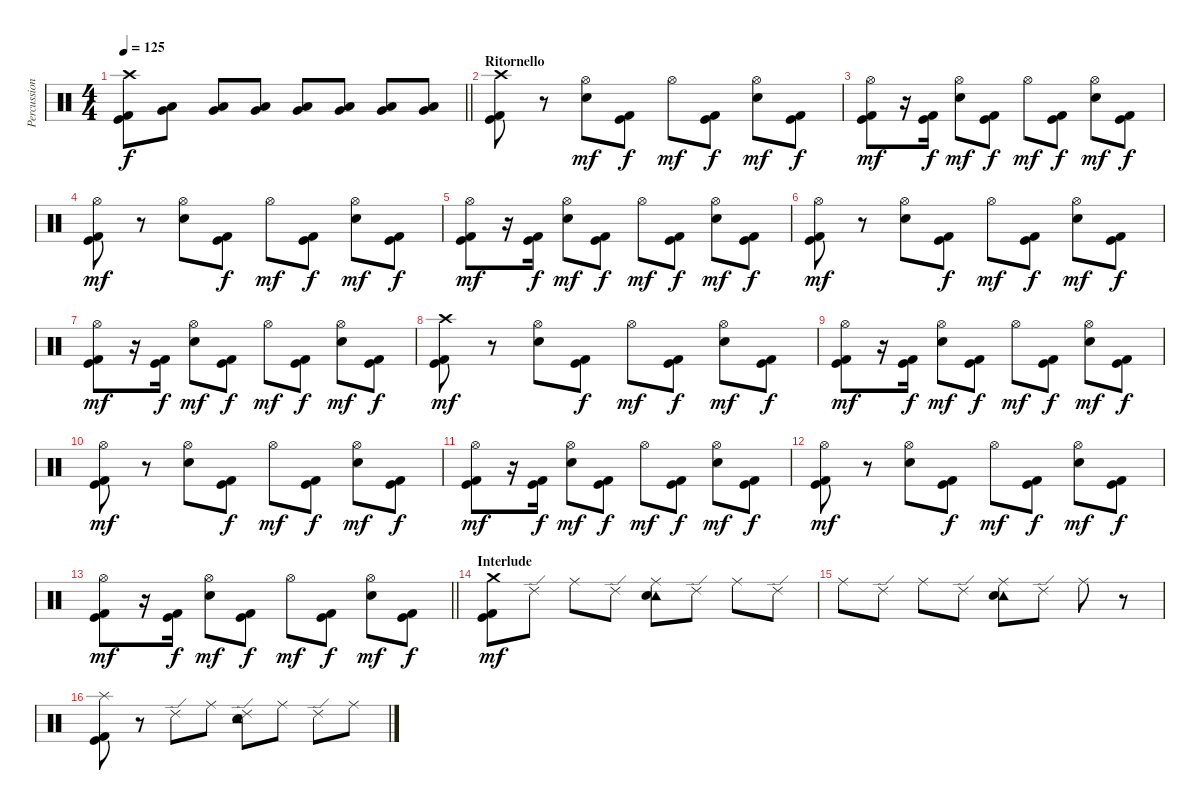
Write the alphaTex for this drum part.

\track ("Percussioni" "Percussion") {instrument percussion}
\staff {score}
\articulation defaults
\ts (4 4)
\tempo 125
\clef neutral
\barLineRight lightlight
\ks c
("Crash high (hit)" "Kick (hit)" "Kick (hit) 2").8{dy f} ("Low Tom (hit)" "Very Low Tom (hit)").8 ("Low Tom (hit)" "Very Low Tom (hit)").8 ("Low Tom (hit)" "Very Low Tom (hit)").8 ("Low Tom (hit)" "Very Low Tom (hit)").8 ("Low Tom (hit)" "Very Low Tom (hit)").8 ("Low Tom (hit)" "Very Low Tom (hit)").8 ("Very Low Tom (hit)" "Low Floor Tom (hit)").8 |
\section ("" "Ritornello")
("Crash high (hit)" "Kick (hit)" "Kick (hit) 2").8 r.8 ("Hi-Hat (open)" "Electric Snare (hit)").8{dy mf} ("Kick (hit)" "Kick (hit) 2").8{dy f} "Hi-Hat (open)".8{dy mf} ("Kick (hit)" "Kick (hit) 2").8{dy f} ("Hi-Hat (open)" "Electric Snare (hit)").8{dy mf} ("Kick (hit)" "Kick (hit) 2").8{dy f} |
("Hi-Hat (open)" "Kick (hit)" "Kick (hit) 2").8{dy mf} r.16 ("Kick (hit)" "Kick (hit) 2").16{dy f} ("Hi-Hat (open)" "Electric Snare (hit)").8{dy mf} ("Kick (hit)" "Kick (hit) 2").8{dy f} "Hi-Hat (open)".8{dy mf} ("Kick (hit)" "Kick (hit) 2").8{dy f} ("Hi-Hat (open)" "Electric Snare (hit)").8{dy mf} ("Kick (hit)" "Kick (hit) 2").8{dy f} |
("Hi-Hat (open)" "Kick (hit)" "Kick (hit) 2").8{dy mf} r.8 ("Hi-Hat (open)" "Electric Snare (hit)").8 ("Kick (hit)" "Kick (hit) 2").8{dy f} "Hi-Hat (open)".8{dy mf} ("Kick (hit)" "Kick (hit) 2").8{dy f} ("Hi-Hat (open)" "Electric Snare (hit)").8{dy mf} ("Kick (hit)" "Kick (hit) 2").8{dy f} |
("Hi-Hat (open)" "Kick (hit)" "Kick (hit) 2").8{dy mf} r.16 ("Kick (hit)" "Kick (hit) 2").16{dy f} ("Hi-Hat (open)" "Electric Snare (hit)").8{dy mf} ("Kick (hit)" "Kick (hit) 2").8{dy f} "Hi-Hat (open)".8{dy mf} ("Kick (hit)" "Kick (hit) 2").8{dy f} ("Hi-Hat (open)" "Electric Snare (hit)").8{dy mf} ("Kick (hit)" "Kick (hit) 2").8{dy f} |
("Hi-Hat (open)" "Kick (hit)" "Kick (hit) 2").8{dy mf} r.8 ("Hi-Hat (open)" "Electric Snare (hit)").8 ("Kick (hit)" "Kick (hit) 2").8{dy f} "Hi-Hat (open)".8{dy mf} ("Kick (hit)" "Kick (hit) 2").8{dy f} ("Hi-Hat (open)" "Electric Snare (hit)").8{dy mf} ("Kick (hit)" "Kick (hit) 2").8{dy f} |
("Hi-Hat (open)" "Kick (hit)" "Kick (hit) 2").8{dy mf} r.16 ("Kick (hit)" "Kick (hit) 2").16{dy f} ("Hi-Hat (open)" "Electric Snare (hit)").8{dy mf} ("Kick (hit)" "Kick (hit) 2").8{dy f} "Hi-Hat (open)".8{dy mf} ("Kick (hit)" "Kick (hit) 2").8{dy f} ("Hi-Hat (open)" "Electric Snare (hit)").8{dy mf} ("Kick (hit)" "Kick (hit) 2").8{dy f} |
("Crash high (hit)" "Kick (hit)" "Kick (hit) 2").8{dy mf} r.8 ("Hi-Hat (open)" "Electric Snare (hit)").8 ("Kick (hit)" "Kick (hit) 2").8{dy f} "Hi-Hat (open)".8{dy mf} ("Kick (hit)" "Kick (hit) 2").8{dy f} ("Hi-Hat (open)" "Electric Snare (hit)").8{dy mf} ("Kick (hit)" "Kick (hit) 2").8{dy f} |
("Hi-Hat (open)" "Kick (hit)" "Kick (hit) 2").8{dy mf} r.16 ("Kick (hit)" "Kick (hit) 2").16{dy f} ("Hi-Hat (open)" "Electric Snare (hit)").8{dy mf} ("Kick (hit)" "Kick (hit) 2").8{dy f} "Hi-Hat (open)".8{dy mf} ("Kick (hit)" "Kick (hit) 2").8{dy f} ("Hi-Hat (open)" "Electric Snare (hit)").8{dy mf} ("Kick (hit)" "Kick (hit) 2").8{dy f} |
("Hi-Hat (open)" "Kick (hit)" "Kick (hit) 2").8{dy mf} r.8 ("Hi-Hat (open)" "Electric Snare (hit)").8 ("Kick (hit)" "Kick (hit) 2").8{dy f} "Hi-Hat (open)".8{dy mf} ("Kick (hit)" "Kick (hit) 2").8{dy f} ("Hi-Hat (open)" "Electric Snare (hit)").8{dy mf} ("Kick (hit)" "Kick (hit) 2").8{dy f} |
("Hi-Hat (open)" "Kick (hit)" "Kick (hit) 2").8{dy mf} r.16 ("Kick (hit)" "Kick (hit) 2").16{dy f} ("Hi-Hat (open)" "Electric Snare (hit)").8{dy mf} ("Kick (hit)" "Kick (hit) 2").8{dy f} "Hi-Hat (open)".8{dy mf} ("Kick (hit)" "Kick (hit) 2").8{dy f} ("Hi-Hat (open)" "Electric Snare (hit)").8{dy mf} ("Kick (hit)" "Kick (hit) 2").8{dy f} |
("Hi-Hat (open)" "Kick (hit)" "Kick (hit) 2").8{dy mf} r.8 ("Hi-Hat (open)" "Electric Snare (hit)").8 ("Kick (hit)" "Kick (hit) 2").8{dy f} "Hi-Hat (open)".8{dy mf} ("Kick (hit)" "Kick (hit) 2").8{dy f} ("Hi-Hat (open)" "Electric Snare (hit)").8{dy mf} ("Kick (hit)" "Kick (hit) 2").8{dy f} |
\barLineRight lightlight
("Hi-Hat (open)" "Kick (hit)" "Kick (hit) 2").8{dy mf} r.16 ("Kick (hit)" "Kick (hit) 2").16{dy f} ("Hi-Hat (open)" "Electric Snare (hit)").8{dy mf} ("Kick (hit)" "Kick (hit) 2").8{dy f} "Hi-Hat (open)".8{dy mf} ("Kick (hit)" "Kick (hit) 2").8{dy f} ("Hi-Hat (open)" "Electric Snare (hit)").8{dy mf} ("Kick (hit)" "Kick (hit) 2").8{dy f} |
\section ("" "Interlude")
("Crash medium (hit)" "Kick (hit)" "Kick (hit) 2").8{dy mf} "Ride (edge) 2".8 "Ride (middle)".8 "Ride (edge) 2".8 ("Ride (middle)" "Tambourine (hit)" "Electric Snare (hit)").8 "Ride (edge) 2".8 "Ride (middle)".8 "Ride (edge) 2".8 |
"Ride (middle)".8 "Ride (edge) 2".8 "Ride (middle)".8 "Ride (edge) 2".8 ("Ride (middle)" "Tambourine (hit)" "Electric Snare (hit)").8 "Ride (edge) 2".8 "Ride (middle)".8 r.8 |
("Splash (hit)" "Kick (hit)" "Kick (hit) 2").8 r.8 "Ride (edge) 2".8 "Ride (middle)".8 ("Ride (edge) 2" "Tambourine (hit)" "Electric Snare (hit)").8 "Ride (middle)".8 "Ride (edge) 2".8 "Ride (middle)".8
